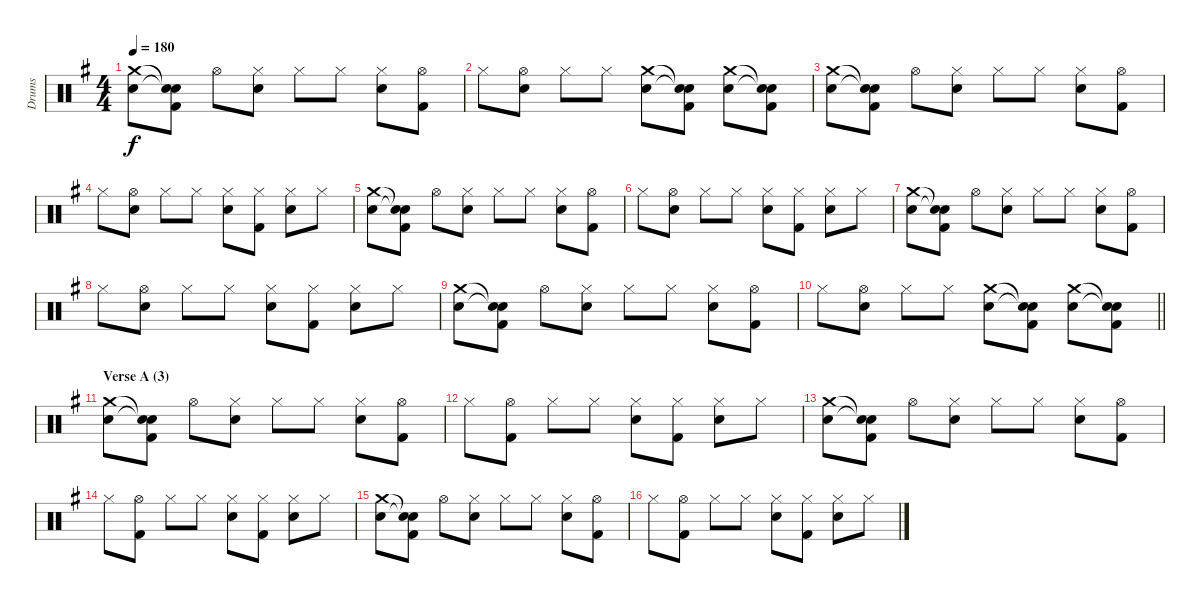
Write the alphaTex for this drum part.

\track ("Drums" "Drums") {instrument percussion}
\staff {score}
\articulation defaults
\ts (4 4)
\tempo 180
\clef neutral
\ks g
("Crash medium (hit)" "Electric Snare (hit)").8{dy f} ("Snare (hit)"{t} "Snare (hit)"{t} "Kick (hit) 2").8 "Hi-Hat (open)".8 ("Hi-Hat (closed)" "Electric Snare (hit)").8 "Hi-Hat (closed)".8 "Hi-Hat (closed)".8 ("Hi-Hat (closed)" "Electric Snare (hit)").8 ("Hi-Hat (open)" "Kick (hit) 2").8 |
"Hi-Hat (closed)".8 ("Hi-Hat (open)" "Electric Snare (hit)").8 "Hi-Hat (closed)".8 "Hi-Hat (closed)".8 ("Crash medium (hit)" "Electric Snare (hit)").8 ("Snare (hit)"{t} "Snare (hit)"{t} "Kick (hit) 2").8 ("Crash medium (hit)" "Electric Snare (hit)").8 ("Snare (hit)"{t} "Snare (hit)"{t} "Kick (hit) 2").8 |
("Crash medium (hit)" "Electric Snare (hit)").8 ("Snare (hit)"{t} "Snare (hit)"{t} "Kick (hit) 2").8 "Hi-Hat (open)".8 ("Hi-Hat (closed)" "Electric Snare (hit)").8 "Hi-Hat (closed)".8 "Hi-Hat (closed)".8 ("Hi-Hat (closed)" "Electric Snare (hit)").8 ("Hi-Hat (open)" "Kick (hit) 2").8 |
"Hi-Hat (closed)".8 ("Hi-Hat (open)" "Electric Snare (hit)").8 "Hi-Hat (closed)".8 "Hi-Hat (closed)".8 ("Hi-Hat (closed)" "Electric Snare (hit)").8 ("Hi-Hat (closed)" "Kick (hit) 2").8 ("Hi-Hat (closed)" "Electric Snare (hit)").8 "Hi-Hat (closed)".8 |
("Crash medium (hit)" "Electric Snare (hit)").8 ("Snare (hit)"{t} "Snare (hit)"{t} "Kick (hit) 2").8 "Hi-Hat (open)".8 ("Hi-Hat (closed)" "Electric Snare (hit)").8 "Hi-Hat (closed)".8 "Hi-Hat (closed)".8 ("Hi-Hat (closed)" "Electric Snare (hit)").8 ("Hi-Hat (open)" "Kick (hit) 2").8 |
"Hi-Hat (closed)".8 ("Hi-Hat (open)" "Electric Snare (hit)").8 "Hi-Hat (closed)".8 "Hi-Hat (closed)".8 ("Hi-Hat (closed)" "Electric Snare (hit)").8 ("Hi-Hat (closed)" "Kick (hit) 2").8 ("Hi-Hat (closed)" "Electric Snare (hit)").8 "Hi-Hat (closed)".8 |
("Crash medium (hit)" "Electric Snare (hit)").8 ("Snare (hit)"{t} "Snare (hit)"{t} "Kick (hit) 2").8 "Hi-Hat (open)".8 ("Hi-Hat (closed)" "Electric Snare (hit)").8 "Hi-Hat (closed)".8 "Hi-Hat (closed)".8 ("Hi-Hat (closed)" "Electric Snare (hit)").8 ("Hi-Hat (open)" "Kick (hit) 2").8 |
"Hi-Hat (closed)".8 ("Hi-Hat (open)" "Electric Snare (hit)").8 "Hi-Hat (closed)".8 "Hi-Hat (closed)".8 ("Hi-Hat (closed)" "Electric Snare (hit)").8 ("Hi-Hat (closed)" "Kick (hit) 2").8 ("Hi-Hat (closed)" "Electric Snare (hit)").8 "Hi-Hat (closed)".8 |
("Crash medium (hit)" "Electric Snare (hit)").8 ("Snare (hit)"{t} "Snare (hit)"{t} "Kick (hit) 2").8 "Hi-Hat (open)".8 ("Hi-Hat (closed)" "Electric Snare (hit)").8 "Hi-Hat (closed)".8 "Hi-Hat (closed)".8 ("Hi-Hat (closed)" "Electric Snare (hit)").8 ("Hi-Hat (open)" "Kick (hit) 2").8 |
\barLineRight lightlight "Hi-Hat (closed)".8
("Hi-Hat (open)" "Electric Snare (hit)").8 "Hi-Hat (closed)".8 "Hi-Hat (closed)".8 ("Crash medium (hit)" "Electric Snare (hit)").8 ("Snare (hit)"{t} "Snare (hit)"{t} "Kick (hit) 2").8 ("Crash medium (hit)" "Electric Snare (hit)").8 ("Snare (hit)"{t} "Snare (hit)"{t} "Kick (hit) 2").8 |
\section ("" "Verse A (3)")
("Crash medium (hit)" "Electric Snare (hit)").8 ("Snare (hit)"{t} "Snare (hit)"{t} "Kick (hit) 2").8 "Hi-Hat (open)".8 ("Hi-Hat (closed)" "Electric Snare (hit)").8 "Hi-Hat (closed)".8 "Hi-Hat (closed)".8 ("Hi-Hat (closed)" "Electric Snare (hit)").8 ("Hi-Hat (open)" "Kick (hit) 2").8 |
"Hi-Hat (closed)".8 ("Hi-Hat (open)" "Kick (hit) 2").8 "Hi-Hat (closed)".8 "Hi-Hat (closed)".8 ("Hi-Hat (closed)" "Electric Snare (hit)").8 ("Hi-Hat (closed)" "Kick (hit) 2").8 ("Hi-Hat (closed)" "Electric Snare (hit)").8 "Hi-Hat (closed)".8 |
("Crash medium (hit)" "Electric Snare (hit)").8 ("Snare (hit)"{t} "Snare (hit)"{t} "Kick (hit) 2").8 "Hi-Hat (open)".8 ("Hi-Hat (closed)" "Electric Snare (hit)").8 "Hi-Hat (closed)".8 "Hi-Hat (closed)".8 ("Hi-Hat (closed)" "Electric Snare (hit)").8 ("Hi-Hat (open)" "Kick (hit) 2").8 |
"Hi-Hat (closed)".8 ("Hi-Hat (open)" "Kick (hit) 2").8 "Hi-Hat (closed)".8 "Hi-Hat (closed)".8 ("Hi-Hat (closed)" "Electric Snare (hit)").8 ("Hi-Hat (closed)" "Kick (hit) 2").8 ("Hi-Hat (closed)" "Electric Snare (hit)").8 "Hi-Hat (closed)".8 |
("Crash medium (hit)" "Electric Snare (hit)").8 ("Snare (hit)"{t} "Snare (hit)"{t} "Kick (hit) 2").8 "Hi-Hat (open)".8 ("Hi-Hat (closed)" "Electric Snare (hit)").8 "Hi-Hat (closed)".8 "Hi-Hat (closed)".8 ("Hi-Hat (closed)" "Electric Snare (hit)").8 ("Hi-Hat (open)" "Kick (hit) 2").8 |
"Hi-Hat (closed)".8 ("Hi-Hat (open)" "Kick (hit) 2").8 "Hi-Hat (closed)".8 "Hi-Hat (closed)".8 ("Hi-Hat (closed)" "Electric Snare (hit)").8 ("Hi-Hat (closed)" "Kick (hit) 2").8 ("Hi-Hat (closed)" "Electric Snare (hit)").8 "Hi-Hat (closed)".8
